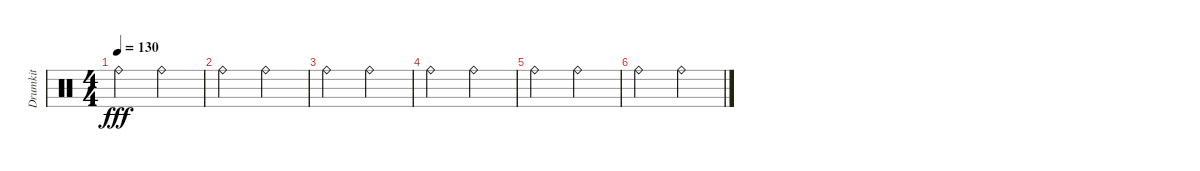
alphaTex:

\track ("Drumkit" "Drumkit") {instrument percussion}
\staff {score}
\articulation defaults
\ts (4 4)
\tempo 130
\clef neutral
\ks c "Ride (bell)".2{dy fff} "Ride (bell)".2
|
"Ride (bell)".2 "Ride (bell)".2 |
"Ride (bell)".2 "Ride (bell)".2 |
"Ride (bell)".2 "Ride (bell)".2 |
"Ride (bell)".2 "Ride (bell)".2 |
"Ride (bell)".2 "Ride (bell)".2
